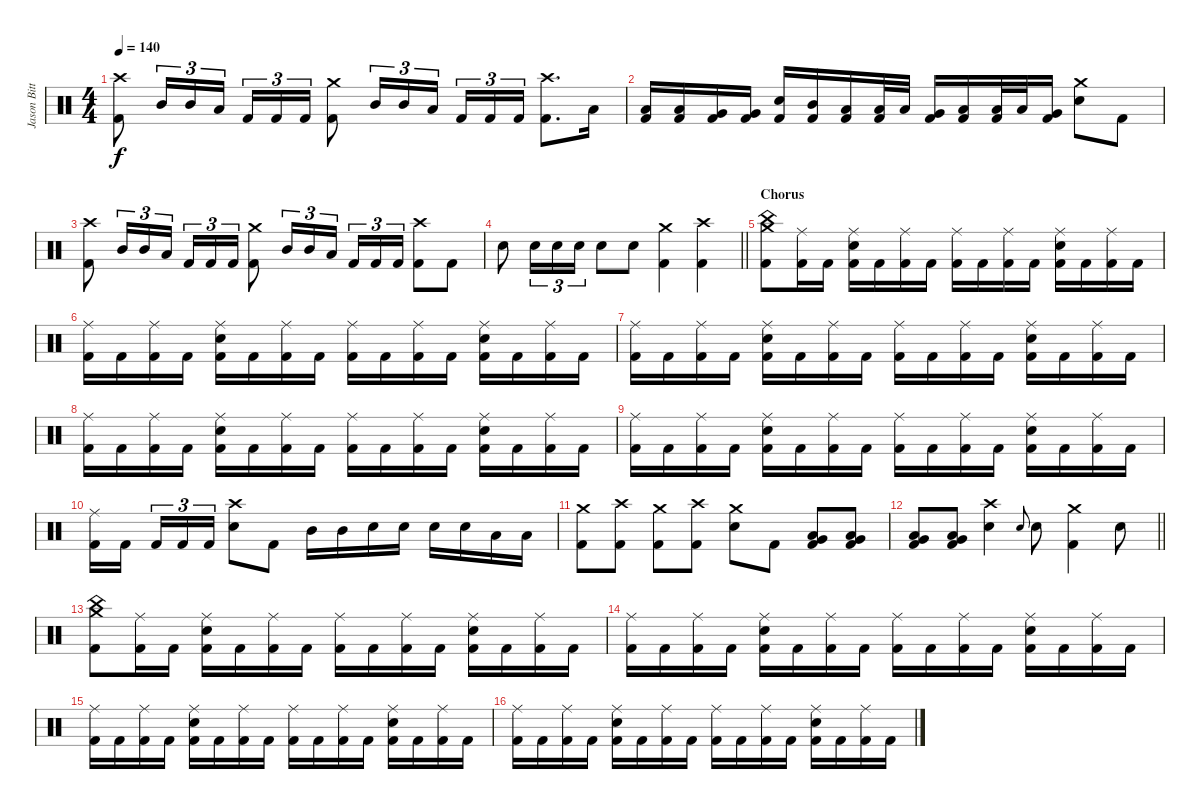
\track ("Jason Bittner" "Jason Bitt") {instrument percussion}
\staff {score}
\articulation defaults
\ts (4 4)
\tempo 140
\clef neutral
\ks c
("Crash high (hit)" "Kick (hit) 2").8{dy f} "Mid Tom (hit)".16{tu (3 2)} "Mid Tom (hit)".16{tu (3 2)} "Low Tom (hit)".16{tu (3 2)} "Kick (hit) 2".16{tu (3 2)} "Kick (hit) 2".16{tu (3 2)} "Kick (hit) 2".16{tu (3 2)} ("Crash medium (hit)" "Kick (hit) 2").8 "Mid Tom (hit)".16{tu (3 2)} "Mid Tom (hit)".16{tu (3 2)} "Low Tom (hit)".16{tu (3 2) beam splitsecondary} "Kick (hit) 2".16{tu (3 2)} "Kick (hit) 2".16{tu (3 2)} "Kick (hit) 2".16{tu (3 2)} ("Crash high (hit)" "Kick (hit) 2").8{d} "Low Tom (hit)".16 |
("Low Tom (hit)" "Kick (hit) 2").16 ("Low Tom (hit)" "Kick (hit) 2").16 ("Very Low Tom (hit)" "Kick (hit) 2").16 ("Very Low Tom (hit)" "Kick (hit) 2").16 ("Electric Snare (hit)" "Kick (hit) 2").16 ("Mid Tom (hit)" "Kick (hit) 2").16 ("Low Tom (hit)" "Kick (hit) 2").16 ("Low Tom (hit)" "Kick (hit) 2").32 "Low Tom (hit)".32 ("Very Low Tom (hit)" "Kick (hit) 2").16 ("Low Tom (hit)" "Kick (hit) 2").16 ("Low Tom (hit)" "Kick (hit) 2").32 "Low Tom (hit)".32 ("Very Low Tom (hit)" "Kick (hit) 2").16 ("Crash medium (hit)" "Electric Snare (hit)").8 "Kick (hit) 2".8 |
("Crash high (hit)" "Kick (hit) 2").8 "Mid Tom (hit)".16{tu (3 2)} "Mid Tom (hit)".16{tu (3 2)} "Low Tom (hit)".16{tu (3 2)} "Kick (hit) 2".16{tu (3 2)} "Kick (hit) 2".16{tu (3 2)} "Kick (hit) 2".16{tu (3 2)} ("Crash medium (hit)" "Kick (hit) 2").8 "Mid Tom (hit)".16{tu (3 2)} "Mid Tom (hit)".16{tu (3 2)} "Low Tom (hit)".16{tu (3 2) beam splitsecondary} "Kick (hit) 2".16{tu (3 2)} "Kick (hit) 2".16{tu (3 2)} "Kick (hit) 2".16{tu (3 2)} ("Crash high (hit)" "Kick (hit) 2").8 "Kick (hit) 2".8 |
\barLineRight lightlight "Electric Snare (hit)".8 "Electric Snare (hit)".16{tu (3 2)} "Electric Snare (hit)".16{tu (3 2)} "Electric Snare (hit)".16{tu (3 2)} "Electric Snare (hit)".8 "Electric Snare (hit)".8
("Crash medium (hit)" "Kick (hit) 2").4 ("Crash high (hit)" "Kick (hit) 2").4 |
\section ("" "Chorus")
("China (hit)" "Crash medium (hit)" "Kick (hit) 2").8 ("Ride (middle)" "Kick (hit) 2").16 "Kick (hit) 2".16 ("Ride (middle)" "Electric Snare (hit)" "Kick (hit) 2").16 "Kick (hit) 2".16 ("Ride (middle)" "Kick (hit) 2").16 "Kick (hit) 2".16 ("Ride (middle)" "Kick (hit) 2").16 "Kick (hit) 2".16 ("Ride (middle)" "Kick (hit) 2").16 "Kick (hit) 2".16 ("Ride (middle)" "Electric Snare (hit)" "Kick (hit) 2").16 "Kick (hit) 2".16 ("Ride (middle)" "Kick (hit) 2").16 "Kick (hit) 2".16 |
("Ride (middle)" "Kick (hit) 2").16 "Kick (hit) 2".16 ("Ride (middle)" "Kick (hit) 2").16 "Kick (hit) 2".16 ("Ride (middle)" "Electric Snare (hit)" "Kick (hit) 2").16 "Kick (hit) 2".16 ("Ride (middle)" "Kick (hit) 2").16 "Kick (hit) 2".16 ("Ride (middle)" "Kick (hit) 2").16 "Kick (hit) 2".16 ("Ride (middle)" "Kick (hit) 2").16 "Kick (hit) 2".16 ("Ride (middle)" "Electric Snare (hit)" "Kick (hit) 2").16 "Kick (hit) 2".16 ("Ride (middle)" "Kick (hit) 2").16 "Kick (hit) 2".16 |
("Ride (middle)" "Kick (hit) 2").16 "Kick (hit) 2".16 ("Ride (middle)" "Kick (hit) 2").16 "Kick (hit) 2".16 ("Ride (middle)" "Electric Snare (hit)" "Kick (hit) 2").16 "Kick (hit) 2".16 ("Ride (middle)" "Kick (hit) 2").16 "Kick (hit) 2".16 ("Ride (middle)" "Kick (hit) 2").16 "Kick (hit) 2".16 ("Ride (middle)" "Kick (hit) 2").16 "Kick (hit) 2".16 ("Ride (middle)" "Electric Snare (hit)" "Kick (hit) 2").16 "Kick (hit) 2".16 ("Ride (middle)" "Kick (hit) 2").16 "Kick (hit) 2".16 |
("Ride (middle)" "Kick (hit) 2").16 "Kick (hit) 2".16 ("Ride (middle)" "Kick (hit) 2").16 "Kick (hit) 2".16 ("Ride (middle)" "Electric Snare (hit)" "Kick (hit) 2").16 "Kick (hit) 2".16 ("Ride (middle)" "Kick (hit) 2").16 "Kick (hit) 2".16 ("Ride (middle)" "Kick (hit) 2").16 "Kick (hit) 2".16 ("Ride (middle)" "Kick (hit) 2").16 "Kick (hit) 2".16 ("Ride (middle)" "Electric Snare (hit)" "Kick (hit) 2").16 "Kick (hit) 2".16 ("Ride (middle)" "Kick (hit) 2").16 "Kick (hit) 2".16 |
("Ride (middle)" "Kick (hit) 2").16 "Kick (hit) 2".16 ("Ride (middle)" "Kick (hit) 2").16 "Kick (hit) 2".16 ("Ride (middle)" "Electric Snare (hit)" "Kick (hit) 2").16 "Kick (hit) 2".16 ("Ride (middle)" "Kick (hit) 2").16 "Kick (hit) 2".16 ("Ride (middle)" "Kick (hit) 2").16 "Kick (hit) 2".16 ("Ride (middle)" "Kick (hit) 2").16 "Kick (hit) 2".16 ("Ride (middle)" "Electric Snare (hit)" "Kick (hit) 2").16 "Kick (hit) 2".16 ("Ride (middle)" "Kick (hit) 2").16 "Kick (hit) 2".16 |
("Ride (middle)" "Kick (hit) 2").16 "Kick (hit) 2".16{beam splitsecondary} "Kick (hit) 2".16{tu (3 2)} "Kick (hit) 2".16{tu (3 2)} "Kick (hit) 2".16{tu (3 2)} ("Crash high (hit)" "Electric Snare (hit)").8 "Kick (hit) 2".8 "Mid Tom (hit)".16 "Mid Tom (hit)".16 "Electric Snare (hit)".16 "Electric Snare (hit)".16 "Electric Snare (hit)".16 "Electric Snare (hit)".16 "Low Tom (hit)".16 "Low Tom (hit)".16 |
("Crash medium (hit)" "Kick (hit) 2").8 ("Crash high (hit)" "Kick (hit) 2").8 ("Crash medium (hit)" "Kick (hit) 2").8 ("Crash high (hit)" "Kick (hit) 2").8 ("Crash medium (hit)" "Electric Snare (hit)").8 "Kick (hit) 2".8 ("Low Tom (hit)" "Very Low Tom (hit)" "Kick (hit) 2").8 ("Low Tom (hit)" "Very Low Tom (hit)" "Kick (hit) 2").8 |
\barLineRight lightlight
("Low Tom (hit)" "Very Low Tom (hit)" "Kick (hit) 2").8 ("Low Tom (hit)" "Very Low Tom (hit)" "Kick (hit) 2").8 ("Crash high (hit)" "Electric Snare (hit)").4 "Electric Snare (hit)".8{gr onbeat} "Electric Snare (hit)".8 ("Crash medium (hit)" "Kick (hit) 2").4 "Electric Snare (hit)".8 |
("China (hit)" "Crash medium (hit)" "Kick (hit) 2").8 ("Ride (middle)" "Kick (hit) 2").16 "Kick (hit) 2".16 ("Ride (middle)" "Electric Snare (hit)" "Kick (hit) 2").16 "Kick (hit) 2".16 ("Ride (middle)" "Kick (hit) 2").16 "Kick (hit) 2".16 ("Ride (middle)" "Kick (hit) 2").16 "Kick (hit) 2".16 ("Ride (middle)" "Kick (hit) 2").16 "Kick (hit) 2".16 ("Ride (middle)" "Electric Snare (hit)" "Kick (hit) 2").16 "Kick (hit) 2".16 ("Ride (middle)" "Kick (hit) 2").16 "Kick (hit) 2".16 |
("Ride (middle)" "Kick (hit) 2").16 "Kick (hit) 2".16 ("Ride (middle)" "Kick (hit) 2").16 "Kick (hit) 2".16 ("Ride (middle)" "Electric Snare (hit)" "Kick (hit) 2").16 "Kick (hit) 2".16 ("Ride (middle)" "Kick (hit) 2").16 "Kick (hit) 2".16 ("Ride (middle)" "Kick (hit) 2").16 "Kick (hit) 2".16 ("Ride (middle)" "Kick (hit) 2").16 "Kick (hit) 2".16 ("Ride (middle)" "Electric Snare (hit)" "Kick (hit) 2").16 "Kick (hit) 2".16 ("Ride (middle)" "Kick (hit) 2").16 "Kick (hit) 2".16 |
("Ride (middle)" "Kick (hit) 2").16 "Kick (hit) 2".16 ("Ride (middle)" "Kick (hit) 2").16 "Kick (hit) 2".16 ("Ride (middle)" "Electric Snare (hit)" "Kick (hit) 2").16 "Kick (hit) 2".16 ("Ride (middle)" "Kick (hit) 2").16 "Kick (hit) 2".16 ("Ride (middle)" "Kick (hit) 2").16 "Kick (hit) 2".16 ("Ride (middle)" "Kick (hit) 2").16 "Kick (hit) 2".16 ("Ride (middle)" "Electric Snare (hit)" "Kick (hit) 2").16 "Kick (hit) 2".16 ("Ride (middle)" "Kick (hit) 2").16 "Kick (hit) 2".16 |
("Ride (middle)" "Kick (hit) 2").16 "Kick (hit) 2".16 ("Ride (middle)" "Kick (hit) 2").16 "Kick (hit) 2".16 ("Ride (middle)" "Electric Snare (hit)" "Kick (hit) 2").16 "Kick (hit) 2".16 ("Ride (middle)" "Kick (hit) 2").16 "Kick (hit) 2".16 ("Ride (middle)" "Kick (hit) 2").16 "Kick (hit) 2".16 ("Ride (middle)" "Kick (hit) 2").16 "Kick (hit) 2".16 ("Ride (middle)" "Electric Snare (hit)" "Kick (hit) 2").16 "Kick (hit) 2".16 ("Ride (middle)" "Kick (hit) 2").16 "Kick (hit) 2".16
